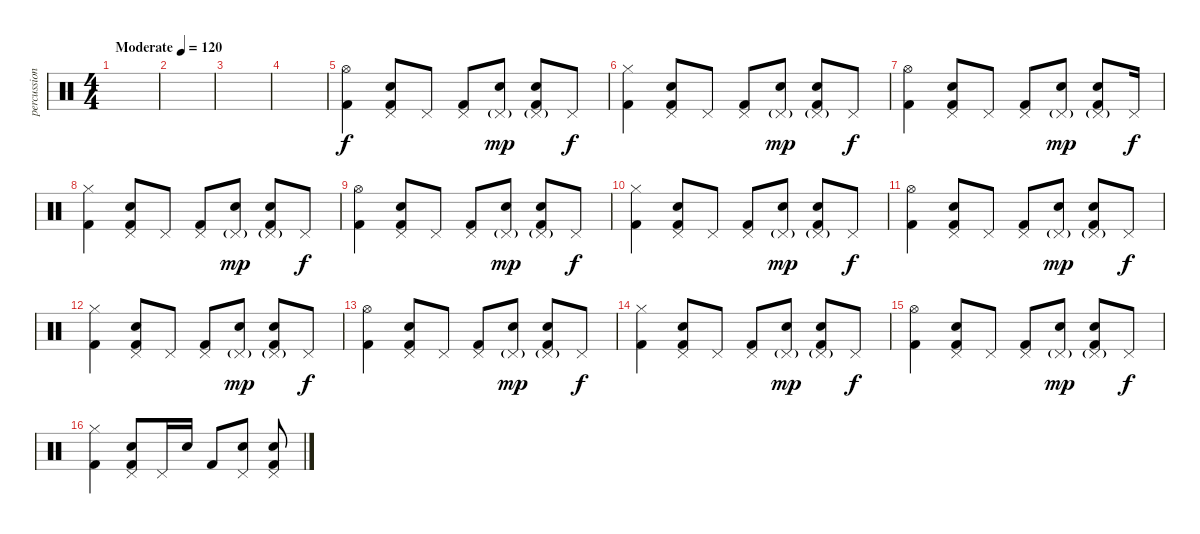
\track ("percussion" "percussion") {instrument percussion}
\staff {score}
\articulation defaults
\ts (4 4)
\tempo (120 "Moderate")
\clef neutral
\ks c
|
|
|
|
("Hi-Hat (open)" "Kick (hit) 2").4 ("Pedal Hi-Hat (hit)" "Electric Snare (hit)" "Kick (hit) 2").8 "Pedal Hi-Hat (hit)".8 ("Pedal Hi-Hat (hit)" "Kick (hit) 2").8 ("Pedal Hi-Hat (hit)"{g} "Electric Snare (hit)").8{dy mp} ("Pedal Hi-Hat (hit)"{g} "Electric Snare (hit)" "Kick (hit) 2").8 "Pedal Hi-Hat (hit)".8{dy f} |
("Hi-Hat (closed)" "Kick (hit) 2").4 ("Pedal Hi-Hat (hit)" "Electric Snare (hit)" "Kick (hit) 2").8 "Pedal Hi-Hat (hit)".8 ("Pedal Hi-Hat (hit)" "Kick (hit) 2").8 ("Pedal Hi-Hat (hit)"{g} "Electric Snare (hit)").8{dy mp} ("Pedal Hi-Hat (hit)"{g} "Electric Snare (hit)" "Kick (hit) 2").8 "Pedal Hi-Hat (hit)".8{dy f} |
("Hi-Hat (open)" "Kick (hit) 2").4 ("Pedal Hi-Hat (hit)" "Electric Snare (hit)" "Kick (hit) 2").8 "Pedal Hi-Hat (hit)".8 ("Pedal Hi-Hat (hit)" "Kick (hit) 2").8 ("Pedal Hi-Hat (hit)"{g} "Electric Snare (hit)").8{dy mp} ("Pedal Hi-Hat (hit)"{g} "Electric Snare (hit)" "Kick (hit) 2").8 "Pedal Hi-Hat (hit)".16{dy f} |
("Hi-Hat (closed)" "Kick (hit) 2").4 ("Pedal Hi-Hat (hit)" "Electric Snare (hit)" "Kick (hit) 2").8 "Pedal Hi-Hat (hit)".8 ("Pedal Hi-Hat (hit)" "Kick (hit) 2").8 ("Pedal Hi-Hat (hit)"{g} "Electric Snare (hit)").8{dy mp} ("Pedal Hi-Hat (hit)"{g} "Electric Snare (hit)" "Kick (hit) 2").8 "Pedal Hi-Hat (hit)".8{dy f} |
("Hi-Hat (open)" "Kick (hit) 2").4 ("Pedal Hi-Hat (hit)" "Electric Snare (hit)" "Kick (hit) 2").8 "Pedal Hi-Hat (hit)".8 ("Pedal Hi-Hat (hit)" "Kick (hit) 2").8 ("Pedal Hi-Hat (hit)"{g} "Electric Snare (hit)").8{dy mp} ("Pedal Hi-Hat (hit)"{g} "Electric Snare (hit)" "Kick (hit) 2").8 "Pedal Hi-Hat (hit)".8{dy f} |
("Hi-Hat (closed)" "Kick (hit) 2").4 ("Pedal Hi-Hat (hit)" "Electric Snare (hit)" "Kick (hit) 2").8 "Pedal Hi-Hat (hit)".8 ("Pedal Hi-Hat (hit)" "Kick (hit) 2").8 ("Pedal Hi-Hat (hit)"{g} "Electric Snare (hit)").8{dy mp} ("Pedal Hi-Hat (hit)"{g} "Electric Snare (hit)" "Kick (hit) 2").8 "Pedal Hi-Hat (hit)".8{dy f} |
("Hi-Hat (open)" "Kick (hit) 2").4 ("Pedal Hi-Hat (hit)" "Electric Snare (hit)" "Kick (hit) 2").8 "Pedal Hi-Hat (hit)".8 ("Pedal Hi-Hat (hit)" "Kick (hit) 2").8 ("Pedal Hi-Hat (hit)"{g} "Electric Snare (hit)").8{dy mp} ("Pedal Hi-Hat (hit)"{g} "Electric Snare (hit)" "Kick (hit) 2").8 "Pedal Hi-Hat (hit)".8{dy f} |
("Hi-Hat (closed)" "Kick (hit) 2").4 ("Pedal Hi-Hat (hit)" "Electric Snare (hit)" "Kick (hit) 2").8 "Pedal Hi-Hat (hit)".8 ("Pedal Hi-Hat (hit)" "Kick (hit) 2").8 ("Pedal Hi-Hat (hit)"{g} "Electric Snare (hit)").8{dy mp} ("Pedal Hi-Hat (hit)"{g} "Electric Snare (hit)" "Kick (hit) 2").8 "Pedal Hi-Hat (hit)".8{dy f} |
("Hi-Hat (open)" "Kick (hit) 2").4 ("Pedal Hi-Hat (hit)" "Electric Snare (hit)" "Kick (hit) 2").8 "Pedal Hi-Hat (hit)".8 ("Pedal Hi-Hat (hit)" "Kick (hit) 2").8 ("Pedal Hi-Hat (hit)"{g} "Electric Snare (hit)").8{dy mp} ("Pedal Hi-Hat (hit)"{g} "Electric Snare (hit)" "Kick (hit) 2").8 "Pedal Hi-Hat (hit)".8{dy f} |
("Hi-Hat (closed)" "Kick (hit) 2").4 ("Pedal Hi-Hat (hit)" "Electric Snare (hit)" "Kick (hit) 2").8 "Pedal Hi-Hat (hit)".8 ("Pedal Hi-Hat (hit)" "Kick (hit) 2").8 ("Pedal Hi-Hat (hit)"{g} "Electric Snare (hit)").8{dy mp} ("Pedal Hi-Hat (hit)"{g} "Electric Snare (hit)" "Kick (hit) 2").8 "Pedal Hi-Hat (hit)".8{dy f} |
("Hi-Hat (open)" "Kick (hit) 2").4 ("Pedal Hi-Hat (hit)" "Electric Snare (hit)" "Kick (hit) 2").8 "Pedal Hi-Hat (hit)".8 ("Pedal Hi-Hat (hit)" "Kick (hit) 2").8 ("Pedal Hi-Hat (hit)"{g} "Electric Snare (hit)").8{dy mp} ("Pedal Hi-Hat (hit)"{g} "Electric Snare (hit)" "Kick (hit) 2").8 "Pedal Hi-Hat (hit)".8{dy f} |
("Hi-Hat (closed)" "Kick (hit) 2").4 ("Pedal Hi-Hat (hit)" "Electric Snare (hit)" "Kick (hit) 2").8 "Pedal Hi-Hat (hit)".16 "Electric Snare (hit)".16 "Kick (hit) 2".8 ("Pedal Hi-Hat (hit)" "Electric Snare (hit)").8 ("Pedal Hi-Hat (hit)" "Electric Snare (hit)" "Kick (hit) 2").8
